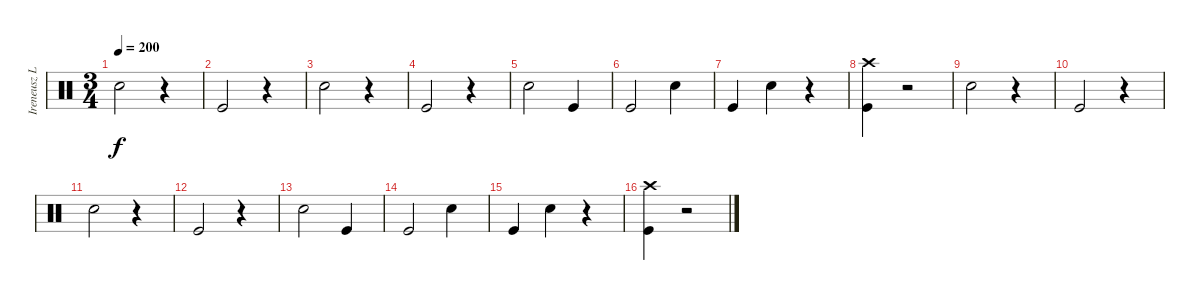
\track ("Ireneusz Loth -Drums" "Ireneusz L") {instrument percussion}
\staff {score}
\articulation defaults
\ts (3 4)
\tempo 200
\clef neutral
\ks c "Snare (hit) 2".2{dy f}
r.4 |
"Kick (hit)".2 r.4 |
"Snare (hit) 2".2 r.4 |
"Kick (hit)".2 r.4 |
"Snare (hit) 2".2 "Kick (hit)".4 |
"Kick (hit)".2 "Snare (hit) 2".4 |
"Kick (hit)".4 "Snare (hit) 2".4 r.4 |
("Kick (hit)" "Crash high (hit)").4 r.2 |
"Snare (hit) 2".2 r.4 |
"Kick (hit)".2 r.4 |
"Snare (hit) 2".2 r.4 |
"Kick (hit)".2 r.4 |
"Snare (hit) 2".2 "Kick (hit)".4 |
"Kick (hit)".2 "Snare (hit) 2".4 |
"Kick (hit)".4 "Snare (hit) 2".4 r.4 |
("Kick (hit)" "Crash high (hit)").4 r.2
